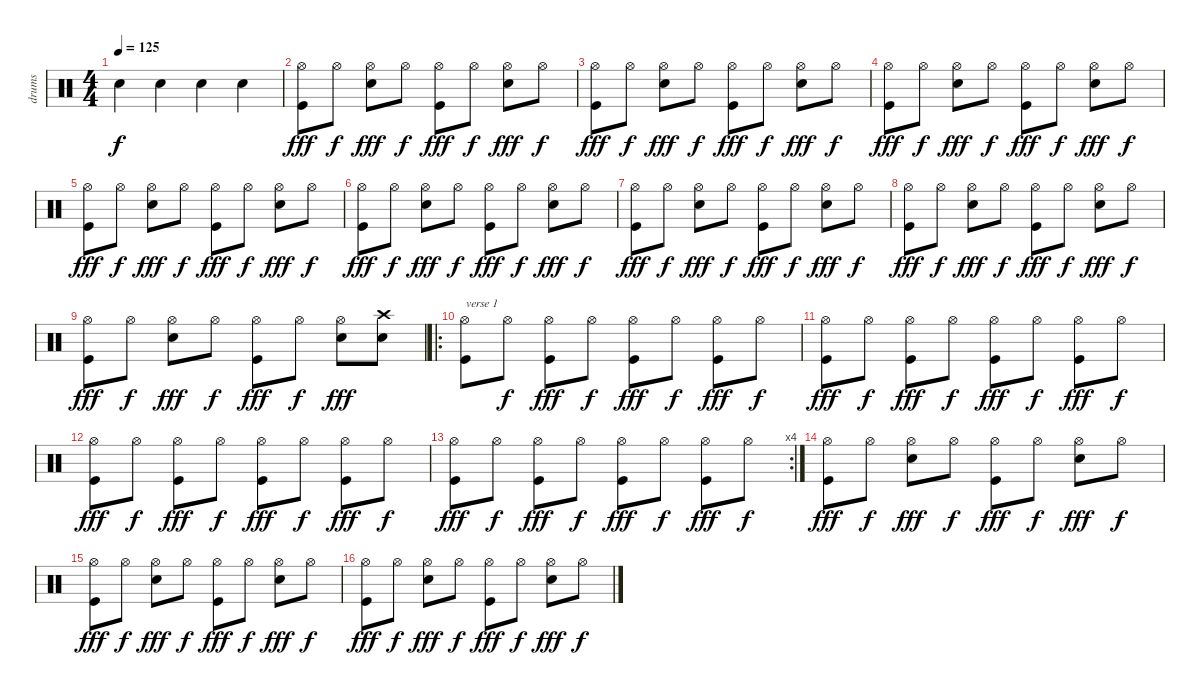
\track ("drums" "drums") {instrument percussion}
\staff {score}
\articulation defaults
\ts (4 4)
\tempo 125
\clef neutral
\ks c "Snare (hit) 2".4{dy f} "Snare (hit) 2".4 "Snare (hit) 2".4 "Snare (hit) 2".4
|
("Hi-Hat (open)" "Kick (hit)").8{dy fff} "Hi-Hat (open)".8{dy f} ("Hi-Hat (open)" "Snare (hit) 2").8{dy fff} "Hi-Hat (open)".8{dy f} ("Hi-Hat (open)" "Kick (hit)").8{dy fff} "Hi-Hat (open)".8{dy f} ("Hi-Hat (open)" "Snare (hit) 2").8{dy fff} "Hi-Hat (open)".8{dy f} |
("Hi-Hat (open)" "Kick (hit)").8{dy fff} "Hi-Hat (open)".8{dy f} ("Hi-Hat (open)" "Snare (hit) 2").8{dy fff} "Hi-Hat (open)".8{dy f} ("Hi-Hat (open)" "Kick (hit)").8{dy fff} "Hi-Hat (open)".8{dy f} ("Hi-Hat (open)" "Snare (hit) 2").8{dy fff} "Hi-Hat (open)".8{dy f} |
("Hi-Hat (open)" "Kick (hit)").8{dy fff} "Hi-Hat (open)".8{dy f} ("Hi-Hat (open)" "Snare (hit) 2").8{dy fff} "Hi-Hat (open)".8{dy f} ("Hi-Hat (open)" "Kick (hit)").8{dy fff} "Hi-Hat (open)".8{dy f} ("Hi-Hat (open)" "Snare (hit) 2").8{dy fff} "Hi-Hat (open)".8{dy f} |
("Hi-Hat (open)" "Kick (hit)").8{dy fff} "Hi-Hat (open)".8{dy f} ("Hi-Hat (open)" "Snare (hit) 2").8{dy fff} "Hi-Hat (open)".8{dy f} ("Hi-Hat (open)" "Kick (hit)").8{dy fff} "Hi-Hat (open)".8{dy f} ("Hi-Hat (open)" "Snare (hit) 2").8{dy fff} "Hi-Hat (open)".8{dy f} |
("Hi-Hat (open)" "Kick (hit)").8{dy fff} "Hi-Hat (open)".8{dy f} ("Hi-Hat (open)" "Snare (hit) 2").8{dy fff} "Hi-Hat (open)".8{dy f} ("Hi-Hat (open)" "Kick (hit)").8{dy fff} "Hi-Hat (open)".8{dy f} ("Hi-Hat (open)" "Snare (hit) 2").8{dy fff} "Hi-Hat (open)".8{dy f} |
("Hi-Hat (open)" "Kick (hit)").8{dy fff} "Hi-Hat (open)".8{dy f} ("Hi-Hat (open)" "Snare (hit) 2").8{dy fff} "Hi-Hat (open)".8{dy f} ("Hi-Hat (open)" "Kick (hit)").8{dy fff} "Hi-Hat (open)".8{dy f} ("Hi-Hat (open)" "Snare (hit) 2").8{dy fff} "Hi-Hat (open)".8{dy f} |
("Hi-Hat (open)" "Kick (hit)").8{dy fff} "Hi-Hat (open)".8{dy f} ("Hi-Hat (open)" "Snare (hit) 2").8{dy fff} "Hi-Hat (open)".8{dy f} ("Hi-Hat (open)" "Kick (hit)").8{dy fff} "Hi-Hat (open)".8{dy f} ("Hi-Hat (open)" "Snare (hit) 2").8{dy fff} "Hi-Hat (open)".8{dy f} |
("Hi-Hat (open)" "Kick (hit)").8{dy fff} "Hi-Hat (open)".8{dy f} ("Hi-Hat (open)" "Snare (hit) 2").8{dy fff} "Hi-Hat (open)".8{dy f} ("Hi-Hat (open)" "Kick (hit)").8{dy fff} "Hi-Hat (open)".8{dy f} ("Hi-Hat (open)" "Snare (hit) 2").8{dy fff} ("Crash high (hit)" "Snare (hit) 2").8 |
\ro
("Hi-Hat (open)" "Kick (hit)").8{txt "verse 1"} "Hi-Hat (open)".8{dy f} ("Hi-Hat (open)" "Kick (hit)").8{dy fff} "Hi-Hat (open)".8{dy f} ("Hi-Hat (open)" "Kick (hit)").8{dy fff} "Hi-Hat (open)".8{dy f} ("Hi-Hat (open)" "Kick (hit)").8{dy fff} "Hi-Hat (open)".8{dy f} |
("Hi-Hat (open)" "Kick (hit)").8{dy fff} "Hi-Hat (open)".8{dy f} ("Hi-Hat (open)" "Kick (hit)").8{dy fff} "Hi-Hat (open)".8{dy f} ("Hi-Hat (open)" "Kick (hit)").8{dy fff} "Hi-Hat (open)".8{dy f} ("Hi-Hat (open)" "Kick (hit)").8{dy fff} "Hi-Hat (open)".8{dy f} |
("Hi-Hat (open)" "Kick (hit)").8{dy fff} "Hi-Hat (open)".8{dy f} ("Hi-Hat (open)" "Kick (hit)").8{dy fff} "Hi-Hat (open)".8{dy f} ("Hi-Hat (open)" "Kick (hit)").8{dy fff} "Hi-Hat (open)".8{dy f} ("Hi-Hat (open)" "Kick (hit)").8{dy fff} "Hi-Hat (open)".8{dy f} |
\rc 4
("Hi-Hat (open)" "Kick (hit)").8{dy fff} "Hi-Hat (open)".8{dy f} ("Hi-Hat (open)" "Kick (hit)").8{dy fff} "Hi-Hat (open)".8{dy f} ("Hi-Hat (open)" "Kick (hit)").8{dy fff} "Hi-Hat (open)".8{dy f} ("Hi-Hat (open)" "Kick (hit)").8{dy fff} "Hi-Hat (open)".8{dy f} |
("Hi-Hat (open)" "Kick (hit)").8{dy fff} "Hi-Hat (open)".8{dy f} ("Hi-Hat (open)" "Snare (hit) 2").8{dy fff} "Hi-Hat (open)".8{dy f} ("Hi-Hat (open)" "Kick (hit)").8{dy fff} "Hi-Hat (open)".8{dy f} ("Hi-Hat (open)" "Snare (hit) 2").8{dy fff} "Hi-Hat (open)".8{dy f} |
("Hi-Hat (open)" "Kick (hit)").8{dy fff} "Hi-Hat (open)".8{dy f} ("Hi-Hat (open)" "Snare (hit) 2").8{dy fff} "Hi-Hat (open)".8{dy f} ("Hi-Hat (open)" "Kick (hit)").8{dy fff} "Hi-Hat (open)".8{dy f} ("Hi-Hat (open)" "Snare (hit) 2").8{dy fff} "Hi-Hat (open)".8{dy f} |
("Hi-Hat (open)" "Kick (hit)").8{dy fff} "Hi-Hat (open)".8{dy f} ("Hi-Hat (open)" "Snare (hit) 2").8{dy fff} "Hi-Hat (open)".8{dy f} ("Hi-Hat (open)" "Kick (hit)").8{dy fff} "Hi-Hat (open)".8{dy f} ("Hi-Hat (open)" "Snare (hit) 2").8{dy fff} "Hi-Hat (open)".8{dy f}
